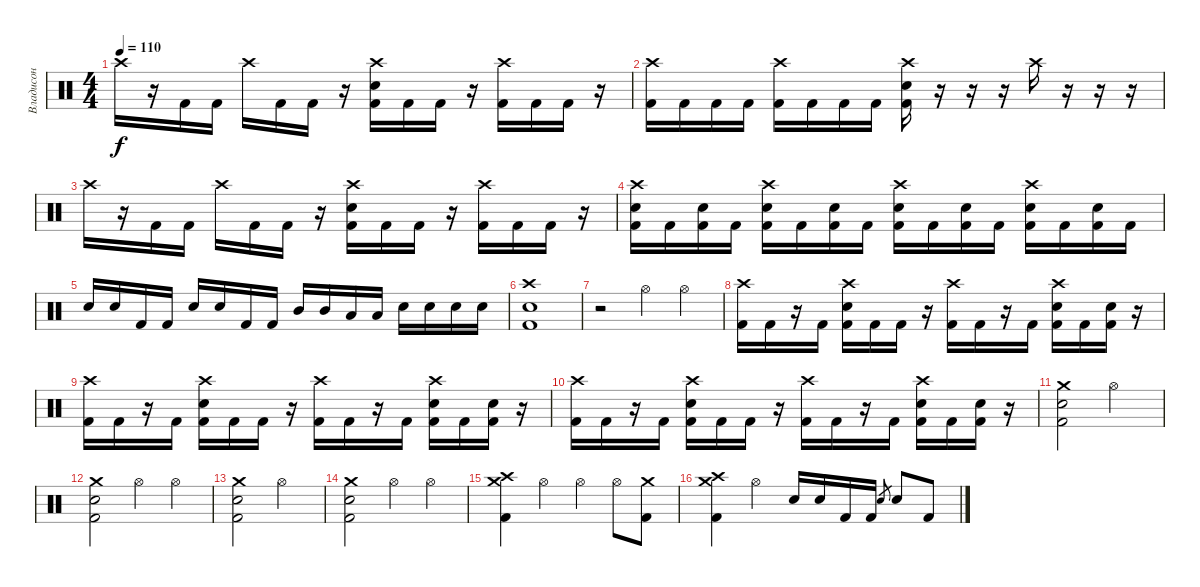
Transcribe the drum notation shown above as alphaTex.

\track ("Владисон" "Владисон") {instrument percussion}
\staff
\articulation defaults
\ts (4 4)
\tempo 110
\clef neutral
\ks c "Crash high (hit)".16{dy f}
r.16 "Kick (hit) 2".16 "Kick (hit) 2".16 "Crash high (hit)".16 "Kick (hit) 2".16 "Kick (hit) 2".16 r.16 ("Crash high (hit)" "Electric Snare (hit)" "Kick (hit) 2").16 "Kick (hit) 2".16 "Kick (hit) 2".16 r.16 ("Crash high (hit)" "Kick (hit) 2").16 "Kick (hit) 2".16 "Kick (hit) 2".16 r.16 |
("Crash high (hit)" "Kick (hit) 2").16 "Kick (hit) 2".16 "Kick (hit) 2".16 "Kick (hit) 2".16 ("Crash high (hit)" "Kick (hit) 2").16 "Kick (hit) 2".16 "Kick (hit) 2".16 "Kick (hit) 2".16 ("Crash high (hit)" "Electric Snare (hit)" "Kick (hit) 2").16 r.16 r.16 r.16 "Crash high (hit)".16 r.16 r.16 r.16 |
"Crash high (hit)".16 r.16 "Kick (hit) 2".16 "Kick (hit) 2".16 "Crash high (hit)".16 "Kick (hit) 2".16 "Kick (hit) 2".16 r.16 ("Crash high (hit)" "Electric Snare (hit)" "Kick (hit) 2").16 "Kick (hit) 2".16 "Kick (hit) 2".16 r.16 ("Crash high (hit)" "Kick (hit) 2").16 "Kick (hit) 2".16 "Kick (hit) 2".16 r.16 |
("Crash high (hit)" "Electric Snare (hit)" "Kick (hit) 2").16 "Kick (hit) 2".16 ("Electric Snare (hit)" "Kick (hit) 2").16 "Kick (hit) 2".16 ("Crash high (hit)" "Electric Snare (hit)" "Kick (hit) 2").16 "Kick (hit) 2".16 ("Electric Snare (hit)" "Kick (hit) 2").16 "Kick (hit) 2".16 ("Crash high (hit)" "Electric Snare (hit)" "Kick (hit) 2").16 "Kick (hit) 2".16 ("Electric Snare (hit)" "Kick (hit) 2").16 "Kick (hit) 2".16 ("Crash high (hit)" "Electric Snare (hit)" "Kick (hit) 2").16 "Kick (hit) 2".16 ("Electric Snare (hit)" "Kick (hit) 2").16 "Kick (hit) 2".16 |
"Electric Snare (hit)".16 "Electric Snare (hit)".16 "Kick (hit) 2".16 "Kick (hit) 2".16 "Electric Snare (hit)".16 "Electric Snare (hit)".16 "Kick (hit) 2".16 "Kick (hit) 2".16 "Mid Tom (hit)".16 "Mid Tom (hit)".16 "Low Tom (hit)".16 "Low Tom (hit)".16 "Electric Snare (hit)".16 "Electric Snare (hit)".16 "Electric Snare (hit)".16 "Electric Snare (hit)".16 |
("Crash high (hit)" "Snare (hit) 2" "Kick (hit) 2").1 |
r.2 "Hi-Hat (open)".4 "Hi-Hat (open)".4 |
("Crash high (hit)" "Kick (hit) 2").16 "Kick (hit) 2".16 r.16 "Kick (hit) 2".16 ("Crash high (hit)" "Snare (hit) 2" "Kick (hit) 2").16 "Kick (hit) 2".16 "Kick (hit) 2".16 r.16 ("Crash high (hit)" "Kick (hit) 2").16 "Kick (hit) 2".16 r.16 "Kick (hit) 2".16 ("Crash high (hit)" "Snare (hit) 2" "Kick (hit) 2").16 "Kick (hit) 2".16 ("Snare (hit) 2" "Kick (hit) 2").16 r.16 |
("Crash high (hit)" "Kick (hit) 2").16 "Kick (hit) 2".16 r.16 "Kick (hit) 2".16 ("Crash high (hit)" "Snare (hit) 2" "Kick (hit) 2").16 "Kick (hit) 2".16 "Kick (hit) 2".16 r.16 ("Crash high (hit)" "Kick (hit) 2").16 "Kick (hit) 2".16 r.16 "Kick (hit) 2".16 ("Crash high (hit)" "Snare (hit) 2" "Kick (hit) 2").16 "Kick (hit) 2".16 ("Snare (hit) 2" "Kick (hit) 2").16 r.16 |
("Crash high (hit)" "Kick (hit) 2").16 "Kick (hit) 2".16 r.16 "Kick (hit) 2".16 ("Crash high (hit)" "Snare (hit) 2" "Kick (hit) 2").16 "Kick (hit) 2".16 "Kick (hit) 2".16 r.16 ("Crash high (hit)" "Kick (hit) 2").16 "Kick (hit) 2".16 r.16 "Kick (hit) 2".16 ("Crash high (hit)" "Snare (hit) 2" "Kick (hit) 2").16 "Kick (hit) 2".16 ("Snare (hit) 2" "Kick (hit) 2").16 r.16 |
("Crash medium (hit)" "Snare (hit) 2" "Kick (hit) 2").2 "Hi-Hat (open)".2 |
("Crash medium (hit)" "Snare (hit) 2" "Kick (hit) 2").2 "Hi-Hat (open)".4 "Hi-Hat (open)".4 |
("Crash medium (hit)" "Snare (hit) 2" "Kick (hit) 2").2 "Hi-Hat (open)".2 |
("Crash medium (hit)" "Snare (hit) 2" "Kick (hit) 2").2 "Hi-Hat (open)".4 "Hi-Hat (open)".4 |
("Kick (hit) 2" "Crash high (hit)" "Crash medium (hit)").4 "Hi-Hat (open)".4 "Hi-Hat (open)".4 "Hi-Hat (open)".8 ("Crash medium (hit)" "Kick (hit) 2").8 |
("Crash medium (hit)" "Crash high (hit)" "Kick (hit) 2").4 "Hi-Hat (open)".4 "Electric Snare (hit)".16 "Electric Snare (hit)".16 "Kick (hit) 2".16 "Kick (hit) 2".16 "Electric Snare (hit)".8{gr} "Electric Snare (hit)".8 "Kick (hit) 2".8
